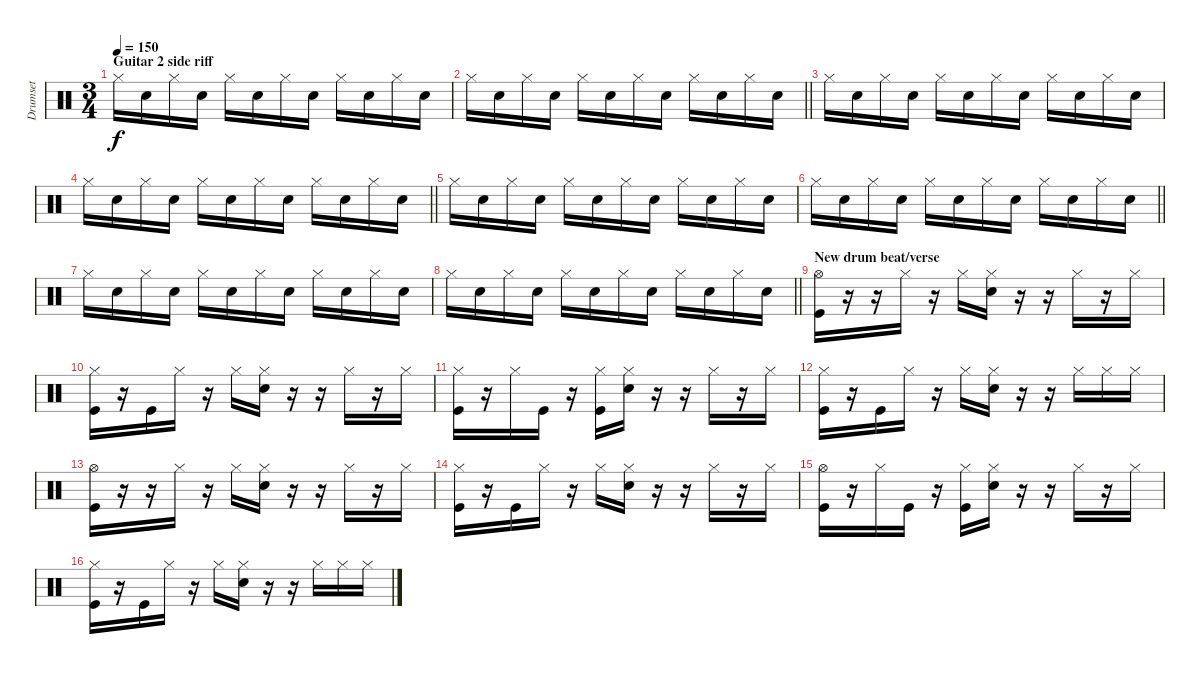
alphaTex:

\track ("Drumset" "Drumset") {instrument percussion}
\staff {score}
\articulation defaults
\ts (3 4)
\section ("" "Guitar 2 side riff")
\tempo 150
\clef neutral
\ks c "Hi-Hat (closed)".16{dy f} "Snare (hit) 2".16 "Hi-Hat (closed)".16 "Snare (hit) 2".16 "Hi-Hat (closed)".16 "Snare (hit) 2".16 "Hi-Hat (closed)".16 "Snare (hit) 2".16 "Hi-Hat (closed)".16 "Snare (hit) 2".16 "Hi-Hat (closed)".16 "Snare (hit) 2".16
|
\barLineRight lightlight "Hi-Hat (closed)".16 "Snare (hit) 2".16 "Hi-Hat (closed)".16 "Snare (hit) 2".16 "Hi-Hat (closed)".16 "Snare (hit) 2".16 "Hi-Hat (closed)".16 "Snare (hit) 2".16 "Hi-Hat (closed)".16 "Snare (hit) 2".16 "Hi-Hat (closed)".16 "Snare (hit) 2".16
|
"Hi-Hat (closed)".16 "Snare (hit) 2".16 "Hi-Hat (closed)".16 "Snare (hit) 2".16 "Hi-Hat (closed)".16 "Snare (hit) 2".16 "Hi-Hat (closed)".16 "Snare (hit) 2".16 "Hi-Hat (closed)".16 "Snare (hit) 2".16 "Hi-Hat (closed)".16 "Snare (hit) 2".16 |
\barLineRight lightlight "Hi-Hat (closed)".16 "Snare (hit) 2".16 "Hi-Hat (closed)".16 "Snare (hit) 2".16 "Hi-Hat (closed)".16 "Snare (hit) 2".16 "Hi-Hat (closed)".16 "Snare (hit) 2".16 "Hi-Hat (closed)".16 "Snare (hit) 2".16 "Hi-Hat (closed)".16 "Snare (hit) 2".16
|
"Hi-Hat (closed)".16 "Snare (hit) 2".16 "Hi-Hat (closed)".16 "Snare (hit) 2".16 "Hi-Hat (closed)".16 "Snare (hit) 2".16 "Hi-Hat (closed)".16 "Snare (hit) 2".16 "Hi-Hat (closed)".16 "Snare (hit) 2".16 "Hi-Hat (closed)".16 "Snare (hit) 2".16 |
\barLineRight lightlight "Hi-Hat (closed)".16 "Snare (hit) 2".16 "Hi-Hat (closed)".16 "Snare (hit) 2".16 "Hi-Hat (closed)".16 "Snare (hit) 2".16 "Hi-Hat (closed)".16 "Snare (hit) 2".16 "Hi-Hat (closed)".16 "Snare (hit) 2".16 "Hi-Hat (closed)".16 "Snare (hit) 2".16
|
"Hi-Hat (closed)".16 "Snare (hit) 2".16 "Hi-Hat (closed)".16 "Snare (hit) 2".16 "Hi-Hat (closed)".16 "Snare (hit) 2".16 "Hi-Hat (closed)".16 "Snare (hit) 2".16 "Hi-Hat (closed)".16 "Snare (hit) 2".16 "Hi-Hat (closed)".16 "Snare (hit) 2".16 |
\barLineRight lightlight "Hi-Hat (closed)".16 "Snare (hit) 2".16 "Hi-Hat (closed)".16 "Snare (hit) 2".16 "Hi-Hat (closed)".16 "Snare (hit) 2".16 "Hi-Hat (closed)".16 "Snare (hit) 2".16 "Hi-Hat (closed)".16 "Snare (hit) 2".16 "Hi-Hat (closed)".16 "Snare (hit) 2".16
|
\section ("" "New drum beat/verse")
("Hi-Hat (open)" "Kick (hit)").16 r.16 r.16 "Hi-Hat (closed)".16 r.16 "Hi-Hat (closed)".16 ("Hi-Hat (closed)" "Snare (hit) 2").16 r.16 r.16 "Hi-Hat (closed)".16 r.16 "Hi-Hat (closed)".16 |
("Hi-Hat (closed)" "Kick (hit)").16 r.16 "Kick (hit)".16 "Hi-Hat (closed)".16 r.16 "Hi-Hat (closed)".16 ("Hi-Hat (closed)" "Snare (hit) 2").16 r.16 r.16 "Hi-Hat (closed)".16 r.16 "Hi-Hat (closed)".16 |
("Hi-Hat (closed)" "Kick (hit)").16 r.16 "Hi-Hat (closed)".16 "Kick (hit)".16 r.16 ("Hi-Hat (closed)" "Kick (hit)").16 ("Hi-Hat (closed)" "Snare (hit) 2").16 r.16 r.16 "Hi-Hat (closed)".16 r.16 "Hi-Hat (closed)".16 |
("Hi-Hat (closed)" "Kick (hit)").16 r.16 "Kick (hit)".16 "Hi-Hat (closed)".16 r.16 "Hi-Hat (closed)".16 ("Hi-Hat (closed)" "Snare (hit) 2").16 r.16 r.16 "Hi-Hat (closed)".16 "Hi-Hat (closed)".16 "Hi-Hat (closed)".16 |
("Hi-Hat (open)" "Kick (hit)").16 r.16 r.16 "Hi-Hat (closed)".16 r.16 "Hi-Hat (closed)".16 ("Hi-Hat (closed)" "Snare (hit) 2").16 r.16 r.16 "Hi-Hat (closed)".16 r.16 "Hi-Hat (closed)".16 |
("Hi-Hat (closed)" "Kick (hit)").16 r.16 "Kick (hit)".16 "Hi-Hat (closed)".16 r.16 "Hi-Hat (closed)".16 ("Hi-Hat (closed)" "Snare (hit) 2").16 r.16 r.16 "Hi-Hat (closed)".16 r.16 "Hi-Hat (closed)".16 |
("Hi-Hat (open)" "Kick (hit)").16 r.16 "Hi-Hat (closed)".16 "Kick (hit)".16 r.16 ("Hi-Hat (closed)" "Kick (hit)").16 ("Hi-Hat (closed)" "Snare (hit) 2").16 r.16 r.16 "Hi-Hat (closed)".16 r.16 "Hi-Hat (closed)".16 |
("Hi-Hat (closed)" "Kick (hit)").16 r.16 "Kick (hit)".16 "Hi-Hat (closed)".16 r.16 "Hi-Hat (closed)".16 ("Hi-Hat (closed)" "Snare (hit) 2").16 r.16 r.16 "Hi-Hat (closed)".16 "Hi-Hat (closed)".16 "Hi-Hat (closed)".16
